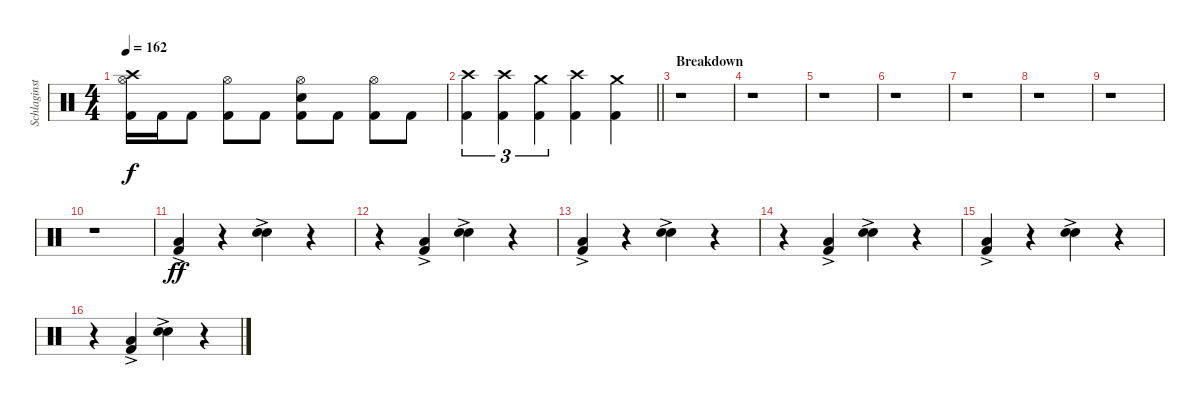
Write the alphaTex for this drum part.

\track ("Schlaginstrumente - Auswahl" "Schlaginst") {instrument percussion}
\staff {score}
\articulation defaults
\ts (4 4)
\tempo 162
\clef neutral
\ks c
("Crash high (hit)" "Hi-Hat (open)" "Kick (hit) 2").16{dy f} "Kick (hit) 2".16 "Kick (hit) 2".8 ("Hi-Hat (open)" "Kick (hit) 2").8 "Kick (hit) 2".8 ("Hi-Hat (open)" "Electric Snare (hit)" "Kick (hit) 2").8 "Kick (hit) 2".8 ("Hi-Hat (open)" "Kick (hit) 2").8 "Kick (hit) 2".8 |
\barLineRight lightlight
("Crash high (hit)" "Kick (hit) 2").4{tu (3 2)} ("Crash high (hit)" "Kick (hit) 2").4{tu (3 2)} ("Crash medium (hit)" "Kick (hit) 2").4{tu (3 2)} ("Crash high (hit)" "Kick (hit) 2").4 ("Crash medium (hit)" "Kick (hit) 2").4 |
\section ("" "Breakdown")
r.1 |
r.1 |
r.1 |
r.1 |
r.1 |
r.1 |
r.1 |
r.1 |
("Low Floor Tom (hit)" "Kick (hit) 2"{ac}).4{dy ff} r.4 ("Hand Clap (hit)" "Electric Snare (hit)"{ac}).4 r.4 |
r.4 ("Low Floor Tom (hit)" "Kick (hit) 2"{ac}).4 ("Hand Clap (hit)" "Electric Snare (hit)"{ac}).4 r.4 |
("Low Floor Tom (hit)" "Kick (hit) 2"{ac}).4 r.4 ("Hand Clap (hit)" "Electric Snare (hit)"{ac}).4 r.4 |
r.4 ("Low Floor Tom (hit)" "Kick (hit) 2"{ac}).4 ("Hand Clap (hit)" "Electric Snare (hit)"{ac}).4 r.4 |
("Low Floor Tom (hit)" "Kick (hit) 2"{ac}).4 r.4 ("Hand Clap (hit)" "Electric Snare (hit)"{ac}).4 r.4 |
r.4 ("Low Floor Tom (hit)" "Kick (hit) 2"{ac}).4 ("Hand Clap (hit)" "Electric Snare (hit)"{ac}).4 r.4
